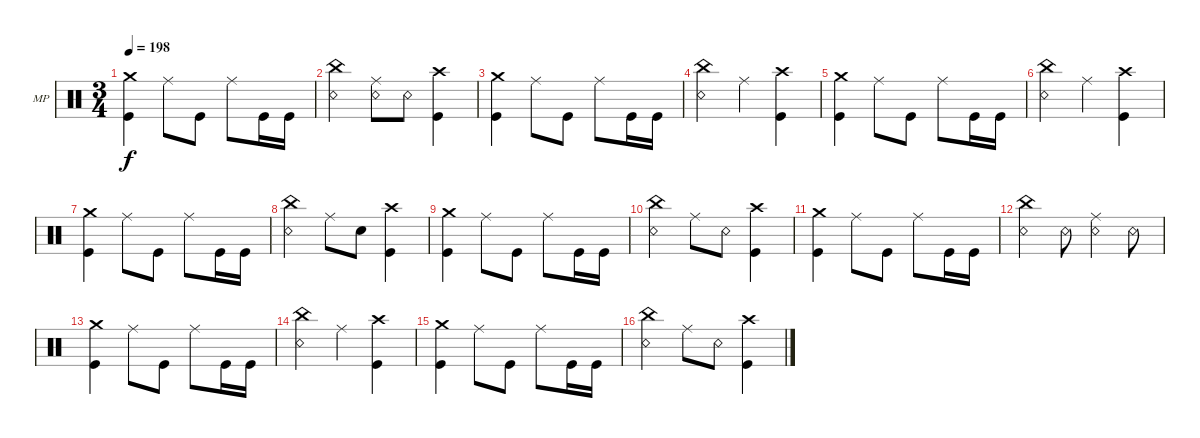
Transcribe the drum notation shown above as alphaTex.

\defaultSystemsLayout 4
\bracketExtendMode groupsimilarinstruments
\firstSystemTrackNameOrientation horizontal
\otherSystemsTrackNameOrientation horizontal
\track ("Mike Portnoy" "MP") {instrument percussion}
\staff {score}
\articulation defaults
\ts (3 4)
\tempo 198
\clef neutral
\ks aminor
("Crash medium (hit)" "Kick (hit)").4{dy f} "Ride (middle)".8 "Kick (hit)".8 "Ride (middle)".8 "Kick (hit)".16 "Kick (hit)".16 |
("China (hit)" "Snare (rim shot)").4 ("Ride (middle)" "Snare (rim shot)").8 "Snare (rim shot)".8 ("Crash high (hit)" "Kick (hit)").4 |
("Crash medium (hit)" "Kick (hit)").4 "Ride (middle)".8 "Kick (hit)".8 "Ride (middle)".8 "Kick (hit)".16 "Kick (hit)".16 |
("China (hit)" "Snare (rim shot)").4 "Ride (middle)".4 ("Crash high (hit)" "Kick (hit)").4 |
("Crash medium (hit)" "Kick (hit)").4 "Ride (middle)".8 "Kick (hit)".8 "Ride (middle)".8 "Kick (hit)".16 "Kick (hit)".16 |
("China (hit)" "Snare (rim shot)").4 "Ride (middle)".4 ("Crash high (hit)" "Kick (hit)").4 |
("Crash medium (hit)" "Kick (hit)").4 "Ride (middle)".8 "Kick (hit)".8 "Ride (middle)".8 "Kick (hit)".16 "Kick (hit)".16 |
("China (hit)" "Snare (rim shot)").4 "Ride (middle)".8 "Snare (hit) 2".8 ("Crash high (hit)" "Kick (hit)").4 |
("Crash medium (hit)" "Kick (hit)").4 "Ride (middle)".8 "Kick (hit)".8 "Ride (middle)".8 "Kick (hit)".16 "Kick (hit)".16 |
("China (hit)" "Snare (rim shot)").4 "Ride (middle)".8 "Snare (rim shot)".8 ("Crash high (hit)" "Kick (hit)").4 |
("Crash medium (hit)" "Kick (hit)").4 "Ride (middle)".8 "Kick (hit)".8 "Ride (middle)".8 "Kick (hit)".16 "Kick (hit)".16 |
("China (hit)" "Snare (rim shot)").4 "Snare (rim shot)".8 ("Ride (middle)" "Snare (rim shot)").4 "Snare (rim shot)".8 |
("Crash medium (hit)" "Kick (hit)").4 "Ride (middle)".8 "Kick (hit)".8 "Ride (middle)".8 "Kick (hit)".16 "Kick (hit)".16 |
("China (hit)" "Snare (rim shot)").4 "Ride (middle)".4 ("Crash high (hit)" "Kick (hit)").4 |
("Crash medium (hit)" "Kick (hit)").4 "Ride (middle)".8 "Kick (hit)".8 "Ride (middle)".8 "Kick (hit)".16 "Kick (hit)".16 |
("China (hit)" "Snare (rim shot)").4 "Ride (middle)".8 "Snare (rim shot)".8 ("Crash high (hit)" "Kick (hit)").4
